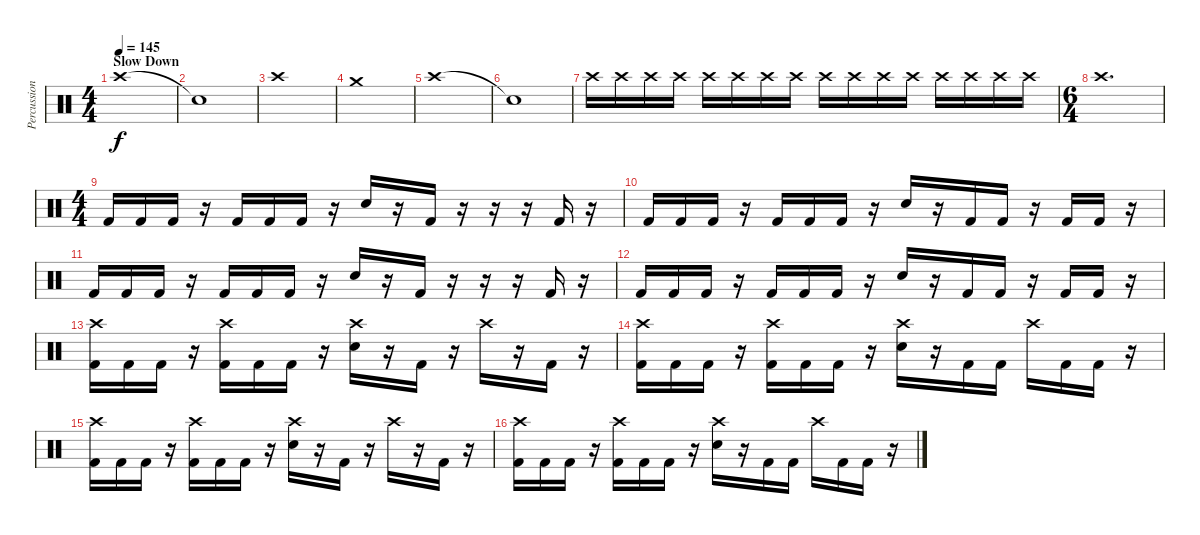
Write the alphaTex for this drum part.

\track ("Percussion" "Percussion") {instrument percussion}
\staff {score}
\articulation defaults
\ts (4 4)
\section ("" "Slow Down")
\tempo 145
\clef neutral
\ks aminor "Crash high (hit)".1{dy f}
|
"Snare (hit)"{t}.1 |
"Crash high (hit)".1 |
"Crash medium (hit)".1 |
"Crash high (hit)".1{volume 4} |
"Snare (hit)"{t}.1 |
"Crash high (hit)".16{volume 12} "Crash high (hit)".16 "Crash high (hit)".16 "Crash high (hit)".16 "Crash high (hit)".16 "Crash high (hit)".16 "Crash high (hit)".16 "Crash high (hit)".16 "Crash high (hit)".16{volume 3} "Crash high (hit)".16 "Crash high (hit)".16 "Crash high (hit)".16 "Crash high (hit)".16 "Crash high (hit)".16 "Crash high (hit)".16 "Crash high (hit)".16 |
\ts (6 4)
"Crash high (hit)".1{d} |
\ts (4 4)
"Kick (hit) 2".16 "Kick (hit) 2".16{volume 13} "Kick (hit) 2".16 r.16 "Kick (hit) 2".16 "Kick (hit) 2".16 "Kick (hit) 2".16 r.16 "Electric Snare (hit)".16 r.16 "Kick (hit) 2".16 r.16 r.16 r.16 "Kick (hit) 2".16 r.16 |
"Kick (hit) 2".16 "Kick (hit) 2".16 "Kick (hit) 2".16 r.16 "Kick (hit) 2".16 "Kick (hit) 2".16 "Kick (hit) 2".16 r.16 "Electric Snare (hit)".16 r.16 "Kick (hit) 2".16 "Kick (hit) 2".16 r.16 "Kick (hit) 2".16 "Kick (hit) 2".16 r.16 |
"Kick (hit) 2".16 "Kick (hit) 2".16 "Kick (hit) 2".16 r.16 "Kick (hit) 2".16 "Kick (hit) 2".16 "Kick (hit) 2".16 r.16 "Electric Snare (hit)".16 r.16 "Kick (hit) 2".16 r.16 r.16 r.16 "Kick (hit) 2".16 r.16 |
"Kick (hit) 2".16 "Kick (hit) 2".16 "Kick (hit) 2".16 r.16 "Kick (hit) 2".16 "Kick (hit) 2".16 "Kick (hit) 2".16 r.16 "Electric Snare (hit)".16 r.16 "Kick (hit) 2".16 "Kick (hit) 2".16 r.16 "Kick (hit) 2".16 "Kick (hit) 2".16 r.16 |
("Crash high (hit)" "Kick (hit) 2").16{volume 13} "Kick (hit) 2".16 "Kick (hit) 2".16 r.16 ("Crash high (hit)" "Kick (hit) 2").16 "Kick (hit) 2".16 "Kick (hit) 2".16 r.16 ("Crash high (hit)" "Electric Snare (hit)").16 r.16 "Kick (hit) 2".16 r.16 "Crash high (hit)".16 r.16 "Kick (hit) 2".16 r.16 |
("Crash high (hit)" "Kick (hit) 2").16 "Kick (hit) 2".16 "Kick (hit) 2".16 r.16 ("Crash high (hit)" "Kick (hit) 2").16 "Kick (hit) 2".16 "Kick (hit) 2".16 r.16 ("Crash high (hit)" "Electric Snare (hit)").16 r.16 "Kick (hit) 2".16 "Kick (hit) 2".16 "Crash high (hit)".16 "Kick (hit) 2".16 "Kick (hit) 2".16 r.16 |
("Crash high (hit)" "Kick (hit) 2").16 "Kick (hit) 2".16 "Kick (hit) 2".16 r.16 ("Crash high (hit)" "Kick (hit) 2").16 "Kick (hit) 2".16 "Kick (hit) 2".16 r.16 ("Crash high (hit)" "Electric Snare (hit)").16 r.16 "Kick (hit) 2".16 r.16 "Crash high (hit)".16 r.16 "Kick (hit) 2".16 r.16 |
("Crash high (hit)" "Kick (hit) 2").16 "Kick (hit) 2".16 "Kick (hit) 2".16 r.16 ("Crash high (hit)" "Kick (hit) 2").16 "Kick (hit) 2".16 "Kick (hit) 2".16 r.16 ("Crash high (hit)" "Electric Snare (hit)").16 r.16 "Kick (hit) 2".16 "Kick (hit) 2".16 "Crash high (hit)".16 "Kick (hit) 2".16 "Kick (hit) 2".16 r.16
